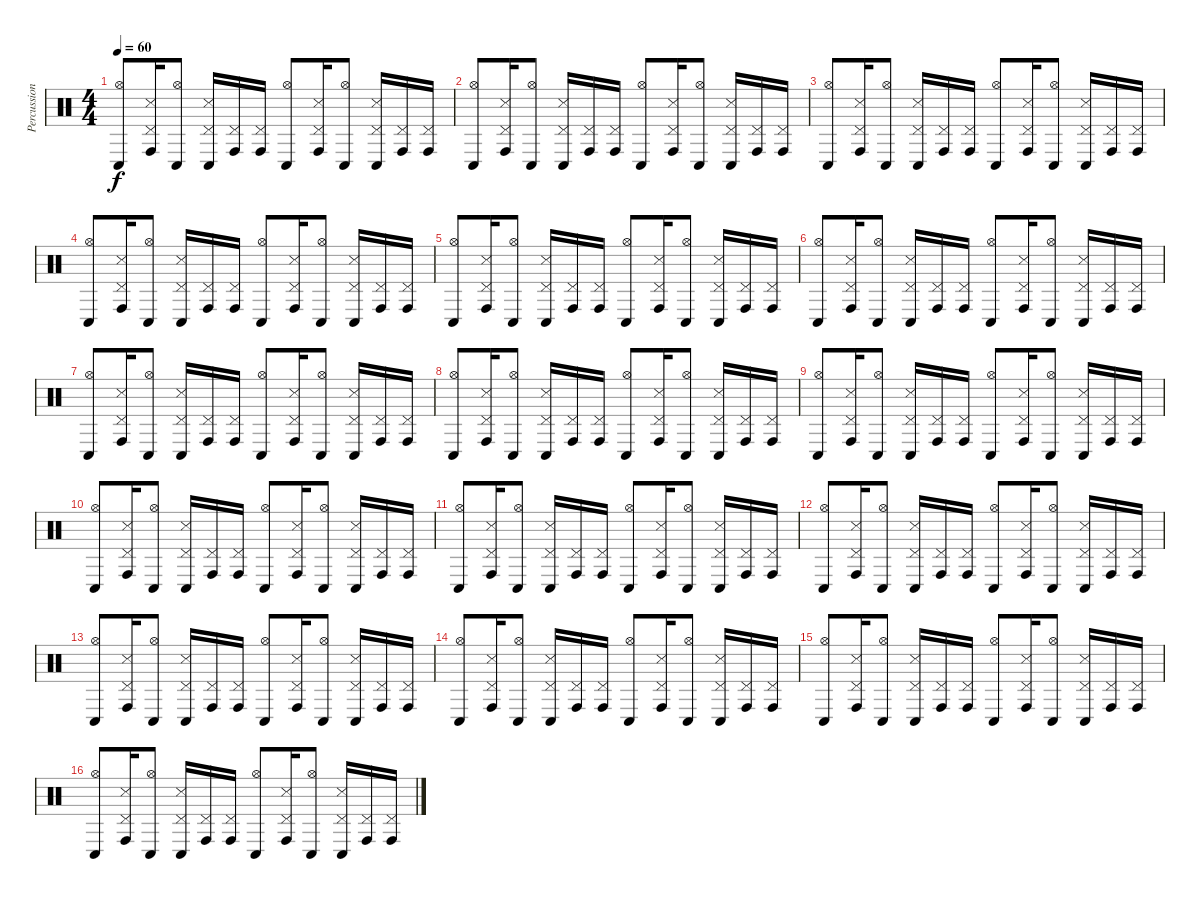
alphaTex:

\track ("Percussion" "Percussion") {instrument percussion}
\staff {score}
\articulation defaults
\ts (4 4)
\tempo 60
\clef neutral
\ks c
("Hi-Hat (open)" "Conga low (hit)").8{dy f} ("Pedal Hi-Hat (hit)" "Metronome (hit)" "Conga high (hit)").16 ("Hi-Hat (open)" "Conga low (hit)").8 ("Pedal Hi-Hat (hit)" "Metronome (hit)" "Conga low (hit)").16 ("Pedal Hi-Hat (hit)" "Conga high (hit)").16 ("Pedal Hi-Hat (hit)" "Conga high (hit)").16 ("Hi-Hat (open)" "Conga low (hit)").8 ("Pedal Hi-Hat (hit)" "Metronome (hit)" "Conga high (hit)").16 ("Hi-Hat (open)" "Conga low (hit)").8 ("Pedal Hi-Hat (hit)" "Metronome (hit)" "Conga low (hit)").16 ("Pedal Hi-Hat (hit)" "Conga high (hit)").16 ("Pedal Hi-Hat (hit)" "Conga high (hit)").16 |
("Hi-Hat (open)" "Conga low (hit)").8 ("Pedal Hi-Hat (hit)" "Metronome (hit)" "Conga high (hit)").16 ("Hi-Hat (open)" "Conga low (hit)").8 ("Pedal Hi-Hat (hit)" "Metronome (hit)" "Conga low (hit)").16 ("Pedal Hi-Hat (hit)" "Conga high (hit)").16 ("Pedal Hi-Hat (hit)" "Conga high (hit)").16 ("Hi-Hat (open)" "Conga low (hit)").8 ("Pedal Hi-Hat (hit)" "Metronome (hit)" "Conga high (hit)").16 ("Hi-Hat (open)" "Conga low (hit)").8 ("Pedal Hi-Hat (hit)" "Metronome (hit)" "Conga low (hit)").16 ("Pedal Hi-Hat (hit)" "Conga high (hit)").16 ("Pedal Hi-Hat (hit)" "Conga high (hit)").16 |
("Hi-Hat (open)" "Conga low (hit)").8 ("Pedal Hi-Hat (hit)" "Metronome (hit)" "Conga high (hit)").16 ("Hi-Hat (open)" "Conga low (hit)").8 ("Pedal Hi-Hat (hit)" "Metronome (hit)" "Conga low (hit)").16 ("Pedal Hi-Hat (hit)" "Conga high (hit)").16 ("Pedal Hi-Hat (hit)" "Conga high (hit)").16 ("Hi-Hat (open)" "Conga low (hit)").8 ("Pedal Hi-Hat (hit)" "Metronome (hit)" "Conga high (hit)").16 ("Hi-Hat (open)" "Conga low (hit)").8 ("Pedal Hi-Hat (hit)" "Metronome (hit)" "Conga low (hit)").16 ("Pedal Hi-Hat (hit)" "Conga high (hit)").16 ("Pedal Hi-Hat (hit)" "Conga high (hit)").16 |
("Hi-Hat (open)" "Conga low (hit)").8 ("Pedal Hi-Hat (hit)" "Metronome (hit)" "Conga high (hit)").16 ("Hi-Hat (open)" "Conga low (hit)").8 ("Pedal Hi-Hat (hit)" "Metronome (hit)" "Conga low (hit)").16 ("Pedal Hi-Hat (hit)" "Conga high (hit)").16 ("Pedal Hi-Hat (hit)" "Conga high (hit)").16 ("Hi-Hat (open)" "Conga low (hit)").8 ("Pedal Hi-Hat (hit)" "Metronome (hit)" "Conga high (hit)").16 ("Hi-Hat (open)" "Conga low (hit)").8 ("Pedal Hi-Hat (hit)" "Metronome (hit)" "Conga low (hit)").16 ("Pedal Hi-Hat (hit)" "Conga high (hit)").16 ("Pedal Hi-Hat (hit)" "Conga high (hit)").16 |
("Hi-Hat (open)" "Conga low (hit)").8 ("Pedal Hi-Hat (hit)" "Metronome (hit)" "Conga high (hit)").16 ("Hi-Hat (open)" "Conga low (hit)").8 ("Pedal Hi-Hat (hit)" "Metronome (hit)" "Conga low (hit)").16 ("Pedal Hi-Hat (hit)" "Conga high (hit)").16 ("Pedal Hi-Hat (hit)" "Conga high (hit)").16 ("Hi-Hat (open)" "Conga low (hit)").8 ("Pedal Hi-Hat (hit)" "Metronome (hit)" "Conga high (hit)").16 ("Hi-Hat (open)" "Conga low (hit)").8 ("Pedal Hi-Hat (hit)" "Metronome (hit)" "Conga low (hit)").16 ("Pedal Hi-Hat (hit)" "Conga high (hit)").16 ("Pedal Hi-Hat (hit)" "Conga high (hit)").16 |
("Hi-Hat (open)" "Conga low (hit)").8 ("Pedal Hi-Hat (hit)" "Metronome (hit)" "Conga high (hit)").16 ("Hi-Hat (open)" "Conga low (hit)").8 ("Pedal Hi-Hat (hit)" "Metronome (hit)" "Conga low (hit)").16 ("Pedal Hi-Hat (hit)" "Conga high (hit)").16 ("Pedal Hi-Hat (hit)" "Conga high (hit)").16 ("Hi-Hat (open)" "Conga low (hit)").8 ("Pedal Hi-Hat (hit)" "Metronome (hit)" "Conga high (hit)").16 ("Hi-Hat (open)" "Conga low (hit)").8 ("Pedal Hi-Hat (hit)" "Metronome (hit)" "Conga low (hit)").16 ("Pedal Hi-Hat (hit)" "Conga high (hit)").16 ("Pedal Hi-Hat (hit)" "Conga high (hit)").16 |
("Hi-Hat (open)" "Conga low (hit)").8 ("Pedal Hi-Hat (hit)" "Metronome (hit)" "Conga high (hit)").16 ("Hi-Hat (open)" "Conga low (hit)").8 ("Pedal Hi-Hat (hit)" "Metronome (hit)" "Conga low (hit)").16 ("Pedal Hi-Hat (hit)" "Conga high (hit)").16 ("Pedal Hi-Hat (hit)" "Conga high (hit)").16 ("Hi-Hat (open)" "Conga low (hit)").8 ("Pedal Hi-Hat (hit)" "Metronome (hit)" "Conga high (hit)").16 ("Hi-Hat (open)" "Conga low (hit)").8 ("Pedal Hi-Hat (hit)" "Metronome (hit)" "Conga low (hit)").16 ("Pedal Hi-Hat (hit)" "Conga high (hit)").16 ("Pedal Hi-Hat (hit)" "Conga high (hit)").16 |
("Hi-Hat (open)" "Conga low (hit)").8 ("Pedal Hi-Hat (hit)" "Metronome (hit)" "Conga high (hit)").16 ("Hi-Hat (open)" "Conga low (hit)").8 ("Pedal Hi-Hat (hit)" "Metronome (hit)" "Conga low (hit)").16 ("Pedal Hi-Hat (hit)" "Conga high (hit)").16 ("Pedal Hi-Hat (hit)" "Conga high (hit)").16 ("Hi-Hat (open)" "Conga low (hit)").8 ("Pedal Hi-Hat (hit)" "Metronome (hit)" "Conga high (hit)").16 ("Hi-Hat (open)" "Conga low (hit)").8 ("Pedal Hi-Hat (hit)" "Metronome (hit)" "Conga low (hit)").16 ("Pedal Hi-Hat (hit)" "Conga high (hit)").16 ("Pedal Hi-Hat (hit)" "Conga high (hit)").16 |
("Hi-Hat (open)" "Conga low (hit)").8 ("Pedal Hi-Hat (hit)" "Metronome (hit)" "Conga high (hit)").16 ("Hi-Hat (open)" "Conga low (hit)").8 ("Pedal Hi-Hat (hit)" "Metronome (hit)" "Conga low (hit)").16 ("Pedal Hi-Hat (hit)" "Conga high (hit)").16 ("Pedal Hi-Hat (hit)" "Conga high (hit)").16 ("Hi-Hat (open)" "Conga low (hit)").8 ("Pedal Hi-Hat (hit)" "Metronome (hit)" "Conga high (hit)").16 ("Hi-Hat (open)" "Conga low (hit)").8 ("Pedal Hi-Hat (hit)" "Metronome (hit)" "Conga low (hit)").16 ("Pedal Hi-Hat (hit)" "Conga high (hit)").16 ("Pedal Hi-Hat (hit)" "Conga high (hit)").16 |
("Hi-Hat (open)" "Conga low (hit)").8 ("Pedal Hi-Hat (hit)" "Metronome (hit)" "Conga high (hit)").16 ("Hi-Hat (open)" "Conga low (hit)").8 ("Pedal Hi-Hat (hit)" "Metronome (hit)" "Conga low (hit)").16 ("Pedal Hi-Hat (hit)" "Conga high (hit)").16 ("Pedal Hi-Hat (hit)" "Conga high (hit)").16 ("Hi-Hat (open)" "Conga low (hit)").8 ("Pedal Hi-Hat (hit)" "Metronome (hit)" "Conga high (hit)").16 ("Hi-Hat (open)" "Conga low (hit)").8 ("Pedal Hi-Hat (hit)" "Metronome (hit)" "Conga low (hit)").16 ("Pedal Hi-Hat (hit)" "Conga high (hit)").16 ("Pedal Hi-Hat (hit)" "Conga high (hit)").16 |
("Hi-Hat (open)" "Conga low (hit)").8 ("Pedal Hi-Hat (hit)" "Metronome (hit)" "Conga high (hit)").16 ("Hi-Hat (open)" "Conga low (hit)").8 ("Pedal Hi-Hat (hit)" "Metronome (hit)" "Conga low (hit)").16 ("Pedal Hi-Hat (hit)" "Conga high (hit)").16 ("Pedal Hi-Hat (hit)" "Conga high (hit)").16 ("Hi-Hat (open)" "Conga low (hit)").8 ("Pedal Hi-Hat (hit)" "Metronome (hit)" "Conga high (hit)").16 ("Hi-Hat (open)" "Conga low (hit)").8 ("Pedal Hi-Hat (hit)" "Metronome (hit)" "Conga low (hit)").16 ("Pedal Hi-Hat (hit)" "Conga high (hit)").16 ("Pedal Hi-Hat (hit)" "Conga high (hit)").16 |
("Hi-Hat (open)" "Conga low (hit)").8 ("Pedal Hi-Hat (hit)" "Metronome (hit)" "Conga high (hit)").16 ("Hi-Hat (open)" "Conga low (hit)").8 ("Pedal Hi-Hat (hit)" "Metronome (hit)" "Conga low (hit)").16 ("Pedal Hi-Hat (hit)" "Conga high (hit)").16 ("Pedal Hi-Hat (hit)" "Conga high (hit)").16 ("Hi-Hat (open)" "Conga low (hit)").8 ("Pedal Hi-Hat (hit)" "Metronome (hit)" "Conga high (hit)").16 ("Hi-Hat (open)" "Conga low (hit)").8 ("Pedal Hi-Hat (hit)" "Metronome (hit)" "Conga low (hit)").16 ("Pedal Hi-Hat (hit)" "Conga high (hit)").16 ("Pedal Hi-Hat (hit)" "Conga high (hit)").16 |
("Hi-Hat (open)" "Conga low (hit)").8 ("Pedal Hi-Hat (hit)" "Metronome (hit)" "Conga high (hit)").16 ("Hi-Hat (open)" "Conga low (hit)").8 ("Pedal Hi-Hat (hit)" "Metronome (hit)" "Conga low (hit)").16 ("Pedal Hi-Hat (hit)" "Conga high (hit)").16 ("Pedal Hi-Hat (hit)" "Conga high (hit)").16 ("Hi-Hat (open)" "Conga low (hit)").8 ("Pedal Hi-Hat (hit)" "Metronome (hit)" "Conga high (hit)").16 ("Hi-Hat (open)" "Conga low (hit)").8 ("Pedal Hi-Hat (hit)" "Metronome (hit)" "Conga low (hit)").16 ("Pedal Hi-Hat (hit)" "Conga high (hit)").16 ("Pedal Hi-Hat (hit)" "Conga high (hit)").16 |
("Hi-Hat (open)" "Conga low (hit)").8 ("Pedal Hi-Hat (hit)" "Metronome (hit)" "Conga high (hit)").16 ("Hi-Hat (open)" "Conga low (hit)").8 ("Pedal Hi-Hat (hit)" "Metronome (hit)" "Conga low (hit)").16 ("Pedal Hi-Hat (hit)" "Conga high (hit)").16 ("Pedal Hi-Hat (hit)" "Conga high (hit)").16 ("Hi-Hat (open)" "Conga low (hit)").8 ("Pedal Hi-Hat (hit)" "Metronome (hit)" "Conga high (hit)").16 ("Hi-Hat (open)" "Conga low (hit)").8 ("Pedal Hi-Hat (hit)" "Metronome (hit)" "Conga low (hit)").16 ("Pedal Hi-Hat (hit)" "Conga high (hit)").16 ("Pedal Hi-Hat (hit)" "Conga high (hit)").16 |
("Hi-Hat (open)" "Conga low (hit)").8 ("Pedal Hi-Hat (hit)" "Metronome (hit)" "Conga high (hit)").16 ("Hi-Hat (open)" "Conga low (hit)").8 ("Pedal Hi-Hat (hit)" "Metronome (hit)" "Conga low (hit)").16 ("Pedal Hi-Hat (hit)" "Conga high (hit)").16 ("Pedal Hi-Hat (hit)" "Conga high (hit)").16 ("Hi-Hat (open)" "Conga low (hit)").8 ("Pedal Hi-Hat (hit)" "Metronome (hit)" "Conga high (hit)").16 ("Hi-Hat (open)" "Conga low (hit)").8 ("Pedal Hi-Hat (hit)" "Metronome (hit)" "Conga low (hit)").16 ("Pedal Hi-Hat (hit)" "Conga high (hit)").16 ("Pedal Hi-Hat (hit)" "Conga high (hit)").16 |
("Hi-Hat (open)" "Conga low (hit)").8 ("Pedal Hi-Hat (hit)" "Metronome (hit)" "Conga high (hit)").16 ("Hi-Hat (open)" "Conga low (hit)").8 ("Pedal Hi-Hat (hit)" "Metronome (hit)" "Conga low (hit)").16 ("Pedal Hi-Hat (hit)" "Conga high (hit)").16 ("Pedal Hi-Hat (hit)" "Conga high (hit)").16 ("Hi-Hat (open)" "Conga low (hit)").8 ("Pedal Hi-Hat (hit)" "Metronome (hit)" "Conga high (hit)").16 ("Hi-Hat (open)" "Conga low (hit)").8 ("Pedal Hi-Hat (hit)" "Metronome (hit)" "Conga low (hit)").16 ("Pedal Hi-Hat (hit)" "Conga high (hit)").16 ("Pedal Hi-Hat (hit)" "Conga high (hit)").16
